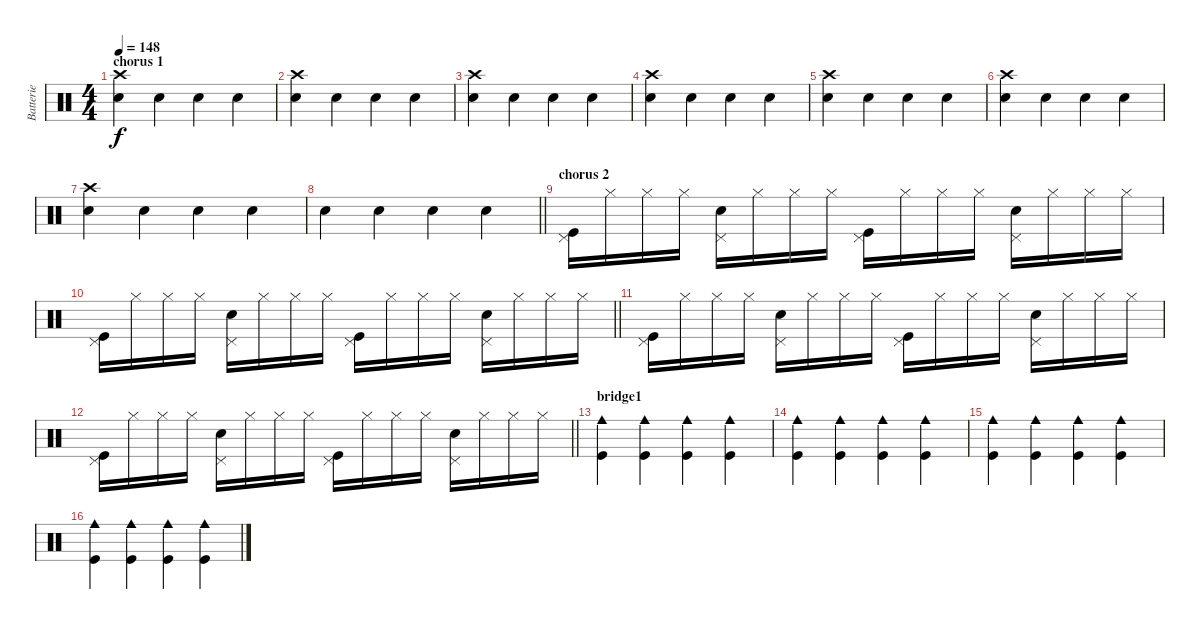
\track ("Batterie" "Batterie") {instrument percussion}
\staff {score}
\articulation defaults
\ts (4 4)
\section ("" "chorus 1")
\tempo 148
\clef neutral
\ks c
("Crash high (hit)" "Electric Snare (hit)").4{dy f} "Electric Snare (hit)".4 "Electric Snare (hit)".4 "Electric Snare (hit)".4 |
("Crash high (hit)" "Electric Snare (hit)").4 "Electric Snare (hit)".4 "Electric Snare (hit)".4 "Electric Snare (hit)".4 |
("Crash high (hit)" "Electric Snare (hit)").4 "Electric Snare (hit)".4 "Electric Snare (hit)".4 "Electric Snare (hit)".4 |
("Crash high (hit)" "Electric Snare (hit)").4 "Electric Snare (hit)".4 "Electric Snare (hit)".4 "Electric Snare (hit)".4 |
("Crash high (hit)" "Electric Snare (hit)").4 "Electric Snare (hit)".4 "Electric Snare (hit)".4 "Electric Snare (hit)".4 |
("Crash high (hit)" "Electric Snare (hit)").4 "Electric Snare (hit)".4 "Electric Snare (hit)".4 "Electric Snare (hit)".4 |
("Crash high (hit)" "Electric Snare (hit)").4 "Electric Snare (hit)".4 "Electric Snare (hit)".4 "Electric Snare (hit)".4 |
\barLineRight lightlight "Electric Snare (hit)".4 "Electric Snare (hit)".4 "Electric Snare (hit)".4 "Electric Snare (hit)".4
|
\section ("" "chorus 2")
("Pedal Hi-Hat (hit)" "Kick (hit)").16 "Hi-Hat (closed)".16 "Hi-Hat (closed)".16 "Hi-Hat (closed)".16 ("Pedal Hi-Hat (hit)" "Electric Snare (hit)").16 "Hi-Hat (closed)".16 "Hi-Hat (closed)".16 "Hi-Hat (closed)".16 ("Pedal Hi-Hat (hit)" "Kick (hit)").16 "Hi-Hat (closed)".16 "Hi-Hat (closed)".16 "Hi-Hat (closed)".16 ("Pedal Hi-Hat (hit)" "Electric Snare (hit)").16 "Hi-Hat (closed)".16 "Hi-Hat (closed)".16 "Hi-Hat (closed)".16 |
\barLineRight lightlight
("Pedal Hi-Hat (hit)" "Kick (hit)").16 "Hi-Hat (closed)".16 "Hi-Hat (closed)".16 "Hi-Hat (closed)".16 ("Pedal Hi-Hat (hit)" "Electric Snare (hit)").16 "Hi-Hat (closed)".16 "Hi-Hat (closed)".16 "Hi-Hat (closed)".16 ("Pedal Hi-Hat (hit)" "Kick (hit)").16 "Hi-Hat (closed)".16 "Hi-Hat (closed)".16 "Hi-Hat (closed)".16 ("Pedal Hi-Hat (hit)" "Electric Snare (hit)").16 "Hi-Hat (closed)".16 "Hi-Hat (closed)".16 "Hi-Hat (closed)".16 |
("Pedal Hi-Hat (hit)" "Kick (hit)").16 "Hi-Hat (closed)".16 "Hi-Hat (closed)".16 "Hi-Hat (closed)".16 ("Pedal Hi-Hat (hit)" "Electric Snare (hit)").16 "Hi-Hat (closed)".16 "Hi-Hat (closed)".16 "Hi-Hat (closed)".16 ("Pedal Hi-Hat (hit)" "Kick (hit)").16 "Hi-Hat (closed)".16 "Hi-Hat (closed)".16 "Hi-Hat (closed)".16 ("Pedal Hi-Hat (hit)" "Electric Snare (hit)").16 "Hi-Hat (closed)".16 "Hi-Hat (closed)".16 "Hi-Hat (closed)".16 |
\barLineRight lightlight
("Pedal Hi-Hat (hit)" "Kick (hit)").16 "Hi-Hat (closed)".16 "Hi-Hat (closed)".16 "Hi-Hat (closed)".16 ("Pedal Hi-Hat (hit)" "Electric Snare (hit)").16 "Hi-Hat (closed)".16 "Hi-Hat (closed)".16 "Hi-Hat (closed)".16 ("Pedal Hi-Hat (hit)" "Kick (hit)").16 "Hi-Hat (closed)".16 "Hi-Hat (closed)".16 "Hi-Hat (closed)".16 ("Pedal Hi-Hat (hit)" "Electric Snare (hit)").16 "Hi-Hat (closed)".16 "Hi-Hat (closed)".16 "Hi-Hat (closed)".16 |
\section ("" "bridge1")
("Cowbell medium (hit)" "Kick (hit)").4 ("Cowbell medium (hit)" "Kick (hit)").4 ("Cowbell medium (hit)" "Kick (hit)").4 ("Cowbell medium (hit)" "Kick (hit)").4 |
("Cowbell medium (hit)" "Kick (hit)").4 ("Cowbell medium (hit)" "Kick (hit)").4 ("Cowbell medium (hit)" "Kick (hit)").4 ("Cowbell medium (hit)" "Kick (hit)").4 |
("Cowbell medium (hit)" "Kick (hit)").4 ("Cowbell medium (hit)" "Kick (hit)").4 ("Cowbell medium (hit)" "Kick (hit)").4 ("Cowbell medium (hit)" "Kick (hit)").4 |
("Cowbell medium (hit)" "Kick (hit)").4 ("Cowbell medium (hit)" "Kick (hit)").4 ("Cowbell medium (hit)" "Kick (hit)").4 ("Cowbell medium (hit)" "Kick (hit)").4
